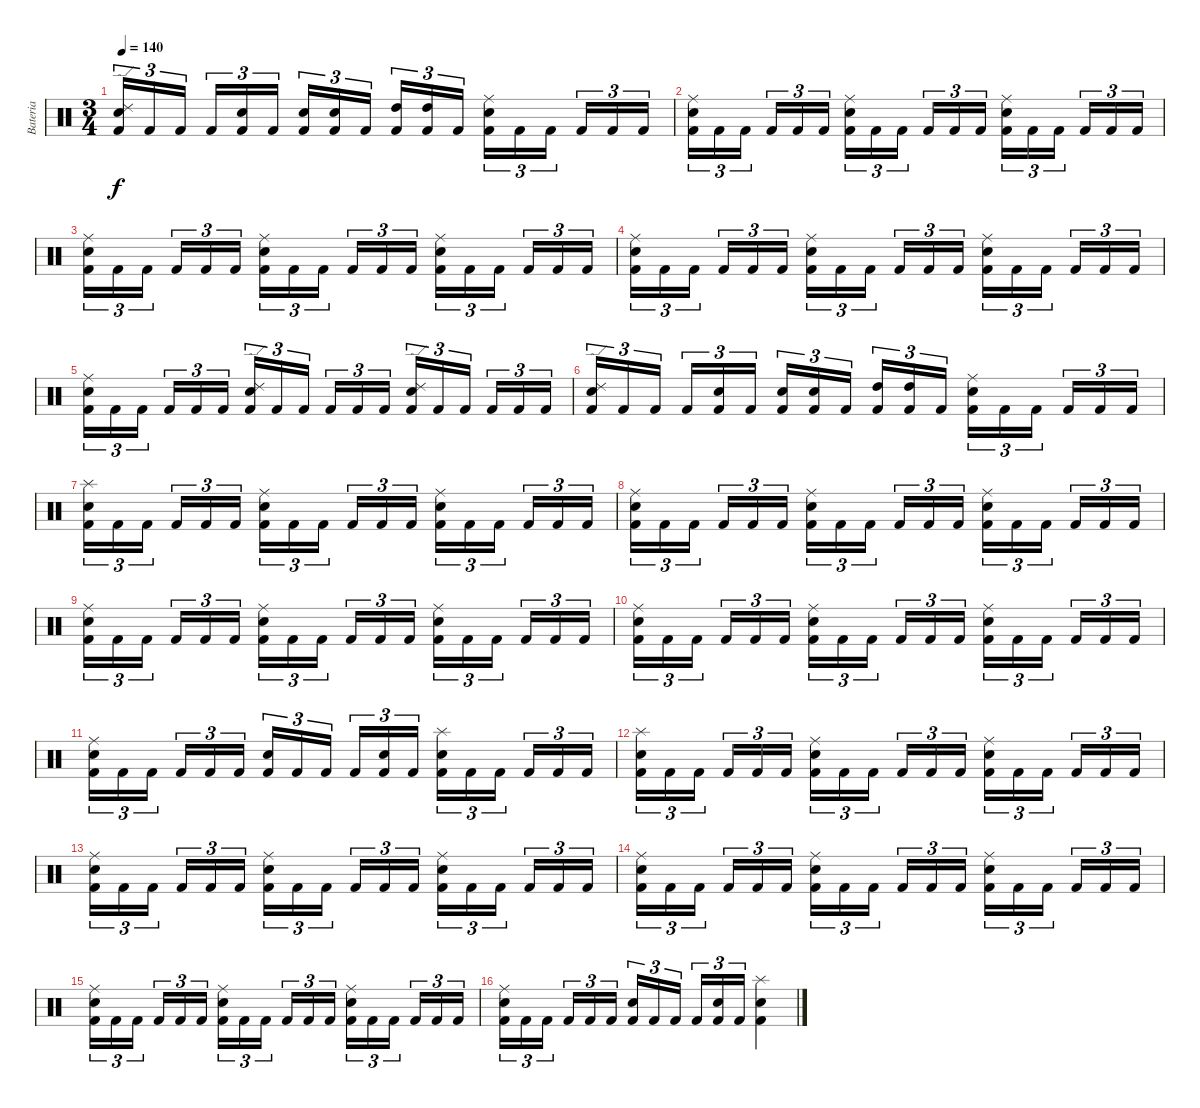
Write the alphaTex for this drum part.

\track ("Bateria" "Bateria") {instrument percussion}
\staff {score}
\articulation defaults
\ts (3 4)
\tempo 140
\clef neutral
\ks c
("Kick (hit) 2" "Electric Snare (hit)" "Ride (edge) 2").16{tu (3 2) dy f} "Kick (hit) 2".16{tu (3 2)} "Kick (hit) 2".16{tu (3 2)} "Kick (hit) 2".16{tu (3 2)} ("Kick (hit) 2" "Electric Snare (hit)").16{tu (3 2)} "Kick (hit) 2".16{tu (3 2)} ("Kick (hit) 2" "Electric Snare (hit)").16{tu (3 2)} ("Kick (hit) 2" "Electric Snare (hit)").16{tu (3 2)} "Kick (hit) 2".16{tu (3 2)} ("Kick (hit) 2" "High Tom (hit)").16{tu (3 2)} ("Kick (hit) 2" "High Tom (hit)").16{tu (3 2)} "Kick (hit) 2".16{tu (3 2)} ("Kick (hit) 2" "Electric Snare (hit)" "Ride (middle)").16{tu (3 2)} "Kick (hit) 2".16{tu (3 2)} "Kick (hit) 2".16{tu (3 2)} "Kick (hit) 2".16{tu (3 2)} "Kick (hit) 2".16{tu (3 2)} "Kick (hit) 2".16{tu (3 2)} |
("Kick (hit) 2" "Electric Snare (hit)" "Ride (middle)").16{tu (3 2)} "Kick (hit) 2".16{tu (3 2)} "Kick (hit) 2".16{tu (3 2)} "Kick (hit) 2".16{tu (3 2)} "Kick (hit) 2".16{tu (3 2)} "Kick (hit) 2".16{tu (3 2)} ("Kick (hit) 2" "Electric Snare (hit)" "Ride (middle)").16{tu (3 2)} "Kick (hit) 2".16{tu (3 2)} "Kick (hit) 2".16{tu (3 2)} "Kick (hit) 2".16{tu (3 2)} "Kick (hit) 2".16{tu (3 2)} "Kick (hit) 2".16{tu (3 2)} ("Kick (hit) 2" "Electric Snare (hit)" "Ride (middle)").16{tu (3 2)} "Kick (hit) 2".16{tu (3 2)} "Kick (hit) 2".16{tu (3 2)} "Kick (hit) 2".16{tu (3 2)} "Kick (hit) 2".16{tu (3 2)} "Kick (hit) 2".16{tu (3 2)} |
("Kick (hit) 2" "Electric Snare (hit)" "Ride (middle)").16{tu (3 2)} "Kick (hit) 2".16{tu (3 2)} "Kick (hit) 2".16{tu (3 2)} "Kick (hit) 2".16{tu (3 2)} "Kick (hit) 2".16{tu (3 2)} "Kick (hit) 2".16{tu (3 2)} ("Kick (hit) 2" "Electric Snare (hit)" "Ride (middle)").16{tu (3 2)} "Kick (hit) 2".16{tu (3 2)} "Kick (hit) 2".16{tu (3 2)} "Kick (hit) 2".16{tu (3 2)} "Kick (hit) 2".16{tu (3 2)} "Kick (hit) 2".16{tu (3 2)} ("Kick (hit) 2" "Electric Snare (hit)" "Ride (middle)").16{tu (3 2)} "Kick (hit) 2".16{tu (3 2)} "Kick (hit) 2".16{tu (3 2)} "Kick (hit) 2".16{tu (3 2)} "Kick (hit) 2".16{tu (3 2)} "Kick (hit) 2".16{tu (3 2)} |
("Kick (hit) 2" "Electric Snare (hit)" "Ride (middle)").16{tu (3 2)} "Kick (hit) 2".16{tu (3 2)} "Kick (hit) 2".16{tu (3 2)} "Kick (hit) 2".16{tu (3 2)} "Kick (hit) 2".16{tu (3 2)} "Kick (hit) 2".16{tu (3 2)} ("Kick (hit) 2" "Electric Snare (hit)" "Ride (middle)").16{tu (3 2)} "Kick (hit) 2".16{tu (3 2)} "Kick (hit) 2".16{tu (3 2)} "Kick (hit) 2".16{tu (3 2)} "Kick (hit) 2".16{tu (3 2)} "Kick (hit) 2".16{tu (3 2)} ("Kick (hit) 2" "Electric Snare (hit)" "Ride (middle)").16{tu (3 2)} "Kick (hit) 2".16{tu (3 2)} "Kick (hit) 2".16{tu (3 2)} "Kick (hit) 2".16{tu (3 2)} "Kick (hit) 2".16{tu (3 2)} "Kick (hit) 2".16{tu (3 2)} |
("Kick (hit) 2" "Electric Snare (hit)" "Ride (middle)").16{tu (3 2)} "Kick (hit) 2".16{tu (3 2)} "Kick (hit) 2".16{tu (3 2)} "Kick (hit) 2".16{tu (3 2)} "Kick (hit) 2".16{tu (3 2)} "Kick (hit) 2".16{tu (3 2)} ("Kick (hit) 2" "Electric Snare (hit)" "Ride (edge) 2").16{tu (3 2)} "Kick (hit) 2".16{tu (3 2)} "Kick (hit) 2".16{tu (3 2)} "Kick (hit) 2".16{tu (3 2)} "Kick (hit) 2".16{tu (3 2)} "Kick (hit) 2".16{tu (3 2)} ("Kick (hit) 2" "Electric Snare (hit)" "Ride (edge) 2").16{tu (3 2)} "Kick (hit) 2".16{tu (3 2)} "Kick (hit) 2".16{tu (3 2)} "Kick (hit) 2".16{tu (3 2)} "Kick (hit) 2".16{tu (3 2)} "Kick (hit) 2".16{tu (3 2)} |
("Kick (hit) 2" "Electric Snare (hit)" "Ride (edge) 2").16{tu (3 2)} "Kick (hit) 2".16{tu (3 2)} "Kick (hit) 2".16{tu (3 2)} "Kick (hit) 2".16{tu (3 2)} ("Kick (hit) 2" "Electric Snare (hit)").16{tu (3 2)} "Kick (hit) 2".16{tu (3 2)} ("Kick (hit) 2" "Electric Snare (hit)").16{tu (3 2)} ("Kick (hit) 2" "Electric Snare (hit)").16{tu (3 2)} "Kick (hit) 2".16{tu (3 2)} ("Kick (hit) 2" "High Tom (hit)").16{tu (3 2)} ("Kick (hit) 2" "High Tom (hit)").16{tu (3 2)} "Kick (hit) 2".16{tu (3 2)} ("Kick (hit) 2" "Electric Snare (hit)" "Ride (middle)").16{tu (3 2)} "Kick (hit) 2".16{tu (3 2)} "Kick (hit) 2".16{tu (3 2)} "Kick (hit) 2".16{tu (3 2)} "Kick (hit) 2".16{tu (3 2)} "Kick (hit) 2".16{tu (3 2)} |
("Kick (hit) 2" "Electric Snare (hit)" "Splash (hit)").16{tu (3 2)} "Kick (hit) 2".16{tu (3 2)} "Kick (hit) 2".16{tu (3 2)} "Kick (hit) 2".16{tu (3 2)} "Kick (hit) 2".16{tu (3 2)} "Kick (hit) 2".16{tu (3 2)} ("Kick (hit) 2" "Electric Snare (hit)" "Ride (middle)").16{tu (3 2)} "Kick (hit) 2".16{tu (3 2)} "Kick (hit) 2".16{tu (3 2)} "Kick (hit) 2".16{tu (3 2)} "Kick (hit) 2".16{tu (3 2)} "Kick (hit) 2".16{tu (3 2)} ("Kick (hit) 2" "Electric Snare (hit)" "Ride (middle)").16{tu (3 2)} "Kick (hit) 2".16{tu (3 2)} "Kick (hit) 2".16{tu (3 2)} "Kick (hit) 2".16{tu (3 2)} "Kick (hit) 2".16{tu (3 2)} "Kick (hit) 2".16{tu (3 2)} |
("Kick (hit) 2" "Electric Snare (hit)" "Ride (middle)").16{tu (3 2)} "Kick (hit) 2".16{tu (3 2)} "Kick (hit) 2".16{tu (3 2)} "Kick (hit) 2".16{tu (3 2)} "Kick (hit) 2".16{tu (3 2)} "Kick (hit) 2".16{tu (3 2)} ("Kick (hit) 2" "Electric Snare (hit)" "Ride (middle)").16{tu (3 2)} "Kick (hit) 2".16{tu (3 2)} "Kick (hit) 2".16{tu (3 2)} "Kick (hit) 2".16{tu (3 2)} "Kick (hit) 2".16{tu (3 2)} "Kick (hit) 2".16{tu (3 2)} ("Kick (hit) 2" "Electric Snare (hit)" "Ride (middle)").16{tu (3 2)} "Kick (hit) 2".16{tu (3 2)} "Kick (hit) 2".16{tu (3 2)} "Kick (hit) 2".16{tu (3 2)} "Kick (hit) 2".16{tu (3 2)} "Kick (hit) 2".16{tu (3 2)} |
("Kick (hit) 2" "Electric Snare (hit)" "Ride (middle)").16{tu (3 2)} "Kick (hit) 2".16{tu (3 2)} "Kick (hit) 2".16{tu (3 2)} "Kick (hit) 2".16{tu (3 2)} "Kick (hit) 2".16{tu (3 2)} "Kick (hit) 2".16{tu (3 2)} ("Kick (hit) 2" "Electric Snare (hit)" "Ride (middle)").16{tu (3 2)} "Kick (hit) 2".16{tu (3 2)} "Kick (hit) 2".16{tu (3 2)} "Kick (hit) 2".16{tu (3 2)} "Kick (hit) 2".16{tu (3 2)} "Kick (hit) 2".16{tu (3 2)} ("Kick (hit) 2" "Electric Snare (hit)" "Ride (middle)").16{tu (3 2)} "Kick (hit) 2".16{tu (3 2)} "Kick (hit) 2".16{tu (3 2)} "Kick (hit) 2".16{tu (3 2)} "Kick (hit) 2".16{tu (3 2)} "Kick (hit) 2".16{tu (3 2)} |
("Kick (hit) 2" "Electric Snare (hit)" "Ride (middle)").16{tu (3 2)} "Kick (hit) 2".16{tu (3 2)} "Kick (hit) 2".16{tu (3 2)} "Kick (hit) 2".16{tu (3 2)} "Kick (hit) 2".16{tu (3 2)} "Kick (hit) 2".16{tu (3 2)} ("Kick (hit) 2" "Electric Snare (hit)" "Ride (middle)").16{tu (3 2)} "Kick (hit) 2".16{tu (3 2)} "Kick (hit) 2".16{tu (3 2)} "Kick (hit) 2".16{tu (3 2)} "Kick (hit) 2".16{tu (3 2)} "Kick (hit) 2".16{tu (3 2)} ("Kick (hit) 2" "Electric Snare (hit)" "Ride (middle)").16{tu (3 2)} "Kick (hit) 2".16{tu (3 2)} "Kick (hit) 2".16{tu (3 2)} "Kick (hit) 2".16{tu (3 2)} "Kick (hit) 2".16{tu (3 2)} "Kick (hit) 2".16{tu (3 2)} |
("Kick (hit) 2" "Electric Snare (hit)" "Ride (middle)").16{tu (3 2)} "Kick (hit) 2".16{tu (3 2)} "Kick (hit) 2".16{tu (3 2)} "Kick (hit) 2".16{tu (3 2)} "Kick (hit) 2".16{tu (3 2)} "Kick (hit) 2".16{tu (3 2)} ("Kick (hit) 2" "Electric Snare (hit)").16{tu (3 2)} "Kick (hit) 2".16{tu (3 2)} "Kick (hit) 2".16{tu (3 2)} "Kick (hit) 2".16{tu (3 2)} ("Kick (hit) 2" "Electric Snare (hit)").16{tu (3 2)} "Kick (hit) 2".16{tu (3 2)} ("Kick (hit) 2" "Electric Snare (hit)" "Splash (hit)").16{tu (3 2)} "Kick (hit) 2".16{tu (3 2)} "Kick (hit) 2".16{tu (3 2)} "Kick (hit) 2".16{tu (3 2)} "Kick (hit) 2".16{tu (3 2)} "Kick (hit) 2".16{tu (3 2)} |
("Kick (hit) 2" "Electric Snare (hit)" "Splash (hit)").16{tu (3 2)} "Kick (hit) 2".16{tu (3 2)} "Kick (hit) 2".16{tu (3 2)} "Kick (hit) 2".16{tu (3 2)} "Kick (hit) 2".16{tu (3 2)} "Kick (hit) 2".16{tu (3 2)} ("Kick (hit) 2" "Electric Snare (hit)" "Ride (middle)").16{tu (3 2)} "Kick (hit) 2".16{tu (3 2)} "Kick (hit) 2".16{tu (3 2)} "Kick (hit) 2".16{tu (3 2)} "Kick (hit) 2".16{tu (3 2)} "Kick (hit) 2".16{tu (3 2)} ("Kick (hit) 2" "Electric Snare (hit)" "Ride (middle)").16{tu (3 2)} "Kick (hit) 2".16{tu (3 2)} "Kick (hit) 2".16{tu (3 2)} "Kick (hit) 2".16{tu (3 2)} "Kick (hit) 2".16{tu (3 2)} "Kick (hit) 2".16{tu (3 2)} |
("Kick (hit) 2" "Electric Snare (hit)" "Ride (middle)").16{tu (3 2)} "Kick (hit) 2".16{tu (3 2)} "Kick (hit) 2".16{tu (3 2)} "Kick (hit) 2".16{tu (3 2)} "Kick (hit) 2".16{tu (3 2)} "Kick (hit) 2".16{tu (3 2)} ("Kick (hit) 2" "Electric Snare (hit)" "Ride (middle)").16{tu (3 2)} "Kick (hit) 2".16{tu (3 2)} "Kick (hit) 2".16{tu (3 2)} "Kick (hit) 2".16{tu (3 2)} "Kick (hit) 2".16{tu (3 2)} "Kick (hit) 2".16{tu (3 2)} ("Kick (hit) 2" "Electric Snare (hit)" "Ride (middle)").16{tu (3 2)} "Kick (hit) 2".16{tu (3 2)} "Kick (hit) 2".16{tu (3 2)} "Kick (hit) 2".16{tu (3 2)} "Kick (hit) 2".16{tu (3 2)} "Kick (hit) 2".16{tu (3 2)} |
("Kick (hit) 2" "Electric Snare (hit)" "Ride (middle)").16{tu (3 2)} "Kick (hit) 2".16{tu (3 2)} "Kick (hit) 2".16{tu (3 2)} "Kick (hit) 2".16{tu (3 2)} "Kick (hit) 2".16{tu (3 2)} "Kick (hit) 2".16{tu (3 2)} ("Kick (hit) 2" "Electric Snare (hit)" "Ride (middle)").16{tu (3 2)} "Kick (hit) 2".16{tu (3 2)} "Kick (hit) 2".16{tu (3 2)} "Kick (hit) 2".16{tu (3 2)} "Kick (hit) 2".16{tu (3 2)} "Kick (hit) 2".16{tu (3 2)} ("Kick (hit) 2" "Electric Snare (hit)" "Ride (middle)").16{tu (3 2)} "Kick (hit) 2".16{tu (3 2)} "Kick (hit) 2".16{tu (3 2)} "Kick (hit) 2".16{tu (3 2)} "Kick (hit) 2".16{tu (3 2)} "Kick (hit) 2".16{tu (3 2)} |
("Kick (hit) 2" "Electric Snare (hit)" "Ride (middle)").16{tu (3 2)} "Kick (hit) 2".16{tu (3 2)} "Kick (hit) 2".16{tu (3 2)} "Kick (hit) 2".16{tu (3 2)} "Kick (hit) 2".16{tu (3 2)} "Kick (hit) 2".16{tu (3 2)} ("Kick (hit) 2" "Electric Snare (hit)" "Ride (middle)").16{tu (3 2)} "Kick (hit) 2".16{tu (3 2)} "Kick (hit) 2".16{tu (3 2)} "Kick (hit) 2".16{tu (3 2)} "Kick (hit) 2".16{tu (3 2)} "Kick (hit) 2".16{tu (3 2)} ("Kick (hit) 2" "Electric Snare (hit)" "Ride (middle)").16{tu (3 2)} "Kick (hit) 2".16{tu (3 2)} "Kick (hit) 2".16{tu (3 2)} "Kick (hit) 2".16{tu (3 2)} "Kick (hit) 2".16{tu (3 2)} "Kick (hit) 2".16{tu (3 2)} |
("Kick (hit) 2" "Electric Snare (hit)" "Ride (middle)").16{tu (3 2)} "Kick (hit) 2".16{tu (3 2)} "Kick (hit) 2".16{tu (3 2)} "Kick (hit) 2".16{tu (3 2)} "Kick (hit) 2".16{tu (3 2)} "Kick (hit) 2".16{tu (3 2)} ("Kick (hit) 2" "Electric Snare (hit)").16{tu (3 2)} "Kick (hit) 2".16{tu (3 2)} "Kick (hit) 2".16{tu (3 2)} "Kick (hit) 2".16{tu (3 2)} ("Kick (hit) 2" "Electric Snare (hit)").16{tu (3 2)} "Kick (hit) 2".16{tu (3 2)} ("Kick (hit) 2" "Electric Snare (hit)" "Splash (hit)").4
